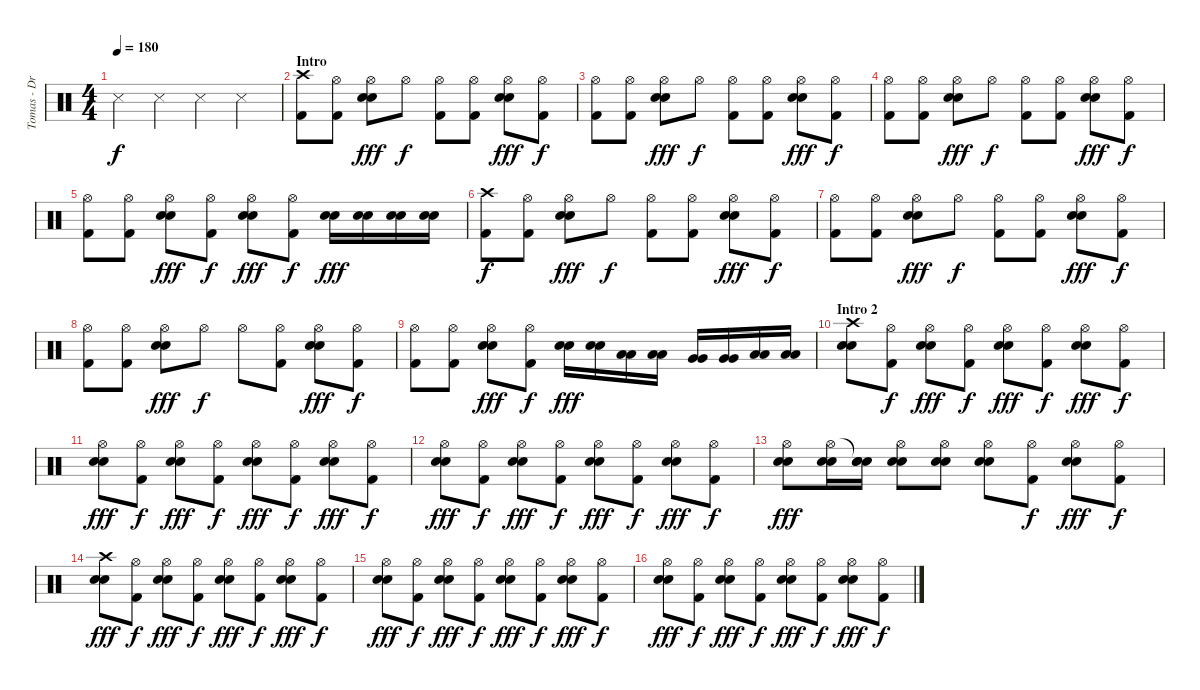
\track ("Tomas - Drums" "Tomas - Dr") {instrument percussion}
\staff {score}
\articulation defaults
\ts (4 4)
\tempo 180
\clef neutral
\ks c "Metronome (hit)".4{dy f} "Metronome (hit)".4 "Metronome (hit)".4 "Metronome (hit)".4
|
\section ("" "Intro")
("Crash high (hit)" "Kick (hit) 2").8 ("Hi-Hat (open)" "Kick (hit) 2").8 ("Hi-Hat (open)" "Electric Snare (hit)" "Electric Snare (hit)").8{dy fff} "Hi-Hat (open)".8{dy f} ("Hi-Hat (open)" "Kick (hit) 2").8 ("Hi-Hat (open)" "Kick (hit) 2").8 ("Hi-Hat (open)" "Electric Snare (hit)" "Electric Snare (hit)").8{dy fff} ("Hi-Hat (open)" "Kick (hit) 2").8{dy f} |
("Hi-Hat (open)" "Kick (hit) 2").8 ("Hi-Hat (open)" "Kick (hit) 2").8 ("Hi-Hat (open)" "Electric Snare (hit)" "Electric Snare (hit)").8{dy fff} "Hi-Hat (open)".8{dy f} ("Hi-Hat (open)" "Kick (hit) 2").8 ("Hi-Hat (open)" "Kick (hit) 2").8 ("Hi-Hat (open)" "Electric Snare (hit)" "Electric Snare (hit)").8{dy fff} ("Hi-Hat (open)" "Kick (hit) 2").8{dy f} |
("Hi-Hat (open)" "Kick (hit) 2").8 ("Hi-Hat (open)" "Kick (hit) 2").8 ("Hi-Hat (open)" "Electric Snare (hit)" "Electric Snare (hit)").8{dy fff} "Hi-Hat (open)".8{dy f} ("Hi-Hat (open)" "Kick (hit) 2").8 ("Hi-Hat (open)" "Kick (hit) 2").8 ("Hi-Hat (open)" "Electric Snare (hit)" "Electric Snare (hit)").8{dy fff} ("Hi-Hat (open)" "Kick (hit) 2").8{dy f} |
("Hi-Hat (open)" "Kick (hit) 2").8 ("Hi-Hat (open)" "Kick (hit) 2").8 ("Hi-Hat (open)" "Electric Snare (hit)" "Electric Snare (hit)").8{dy fff} ("Hi-Hat (open)" "Kick (hit) 2").8{dy f} ("Hi-Hat (open)" "Electric Snare (hit)" "Electric Snare (hit)").8{dy fff} ("Hi-Hat (open)" "Kick (hit) 2").8{dy f} ("Electric Snare (hit)" "Electric Snare (hit)").16{dy fff} ("Electric Snare (hit)" "Electric Snare (hit)").16 ("Electric Snare (hit)" "Electric Snare (hit)").16 ("Electric Snare (hit)" "Electric Snare (hit)").16 |
("Crash high (hit)" "Kick (hit) 2").8{dy f} ("Hi-Hat (open)" "Kick (hit) 2").8 ("Hi-Hat (open)" "Electric Snare (hit)" "Electric Snare (hit)").8{dy fff} "Hi-Hat (open)".8{dy f} ("Hi-Hat (open)" "Kick (hit) 2").8 ("Hi-Hat (open)" "Kick (hit) 2").8 ("Hi-Hat (open)" "Electric Snare (hit)" "Electric Snare (hit)").8{dy fff} ("Hi-Hat (open)" "Kick (hit) 2").8{dy f} |
("Hi-Hat (open)" "Kick (hit) 2").8 ("Hi-Hat (open)" "Kick (hit) 2").8 ("Hi-Hat (open)" "Electric Snare (hit)" "Electric Snare (hit)").8{dy fff} "Hi-Hat (open)".8{dy f} ("Hi-Hat (open)" "Kick (hit) 2").8 ("Hi-Hat (open)" "Kick (hit) 2").8 ("Hi-Hat (open)" "Electric Snare (hit)" "Electric Snare (hit)").8{dy fff} ("Hi-Hat (open)" "Kick (hit) 2").8{dy f} |
("Hi-Hat (open)" "Kick (hit) 2").8 ("Hi-Hat (open)" "Kick (hit) 2").8 ("Hi-Hat (open)" "Electric Snare (hit)" "Electric Snare (hit)").8{dy fff} "Hi-Hat (open)".8{dy f} "Hi-Hat (open)".8 ("Hi-Hat (open)" "Kick (hit) 2").8 ("Hi-Hat (open)" "Electric Snare (hit)" "Electric Snare (hit)").8{dy fff} ("Hi-Hat (open)" "Kick (hit) 2").8{dy f} |
("Hi-Hat (open)" "Kick (hit) 2").8 ("Hi-Hat (open)" "Kick (hit) 2").8 ("Hi-Hat (open)" "Electric Snare (hit)" "Electric Snare (hit)").8{dy fff} ("Hi-Hat (open)" "Kick (hit) 2").8{dy f} ("Electric Snare (hit)" "Electric Snare (hit)").16{dy fff} ("Electric Snare (hit)" "Electric Snare (hit)").16 ("Low Tom (hit)" "Low Tom (hit)").16 ("Low Tom (hit)" "Low Tom (hit)").16 ("Very Low Tom (hit)" "Very Low Tom (hit)").16 ("Very Low Tom (hit)" "Very Low Tom (hit)").16 ("Low Floor Tom (hit)" "Low Floor Tom (hit)").16 ("Low Floor Tom (hit)" "Low Floor Tom (hit)").16 |
\section ("" "Intro 2")
("Crash high (hit)" "Electric Snare (hit)" "Electric Snare (hit)").8 ("Hi-Hat (open)" "Kick (hit) 2").8{dy f} ("Hi-Hat (open)" "Electric Snare (hit)" "Electric Snare (hit)").8{dy fff} ("Hi-Hat (open)" "Kick (hit) 2").8{dy f} ("Hi-Hat (open)" "Electric Snare (hit)" "Electric Snare (hit)").8{dy fff} ("Hi-Hat (open)" "Kick (hit) 2").8{dy f} ("Hi-Hat (open)" "Electric Snare (hit)" "Electric Snare (hit)").8{dy fff} ("Hi-Hat (open)" "Kick (hit) 2").8{dy f} |
("Hi-Hat (open)" "Electric Snare (hit)" "Electric Snare (hit)").8{dy fff} ("Hi-Hat (open)" "Kick (hit) 2").8{dy f} ("Hi-Hat (open)" "Electric Snare (hit)" "Electric Snare (hit)").8{dy fff} ("Hi-Hat (open)" "Kick (hit) 2").8{dy f} ("Hi-Hat (open)" "Electric Snare (hit)" "Electric Snare (hit)").8{dy fff} ("Hi-Hat (open)" "Kick (hit) 2").8{dy f} ("Hi-Hat (open)" "Electric Snare (hit)" "Electric Snare (hit)").8{dy fff} ("Hi-Hat (open)" "Kick (hit) 2").8{dy f} |
("Hi-Hat (open)" "Electric Snare (hit)" "Electric Snare (hit)").8{dy fff} ("Hi-Hat (open)" "Kick (hit) 2").8{dy f} ("Hi-Hat (open)" "Electric Snare (hit)" "Electric Snare (hit)").8{dy fff} ("Hi-Hat (open)" "Kick (hit) 2").8{dy f} ("Hi-Hat (open)" "Electric Snare (hit)" "Electric Snare (hit)").8{dy fff} ("Hi-Hat (open)" "Kick (hit) 2").8{dy f} ("Hi-Hat (open)" "Electric Snare (hit)" "Electric Snare (hit)").8{dy fff} ("Hi-Hat (open)" "Kick (hit) 2").8{dy f} |
("Hi-Hat (open)" "Electric Snare (hit)" "Electric Snare (hit)").8{dy fff} ("Hi-Hat (open)" "Electric Snare (hit)" "Electric Snare (hit)").16 ("Snare (hit)"{t} "Electric Snare (hit)" "Electric Snare (hit)").16 ("Hi-Hat (open)" "Electric Snare (hit)" "Electric Snare (hit)").8 ("Hi-Hat (open)" "Electric Snare (hit)" "Electric Snare (hit)").8 ("Hi-Hat (open)" "Electric Snare (hit)" "Electric Snare (hit)").8 ("Hi-Hat (open)" "Kick (hit) 2").8{dy f} ("Hi-Hat (open)" "Electric Snare (hit)" "Electric Snare (hit)").8{dy fff} ("Hi-Hat (open)" "Kick (hit) 2").8{dy f} |
("Crash high (hit)" "Electric Snare (hit)" "Electric Snare (hit)").8{dy fff} ("Hi-Hat (open)" "Kick (hit) 2").8{dy f} ("Hi-Hat (open)" "Electric Snare (hit)" "Electric Snare (hit)").8{dy fff} ("Hi-Hat (open)" "Kick (hit) 2").8{dy f} ("Hi-Hat (open)" "Electric Snare (hit)" "Electric Snare (hit)").8{dy fff} ("Hi-Hat (open)" "Kick (hit) 2").8{dy f} ("Hi-Hat (open)" "Electric Snare (hit)" "Electric Snare (hit)").8{dy fff} ("Hi-Hat (open)" "Kick (hit) 2").8{dy f} |
("Hi-Hat (open)" "Electric Snare (hit)" "Electric Snare (hit)").8{dy fff} ("Hi-Hat (open)" "Kick (hit) 2").8{dy f} ("Hi-Hat (open)" "Electric Snare (hit)" "Electric Snare (hit)").8{dy fff} ("Hi-Hat (open)" "Kick (hit) 2").8{dy f} ("Hi-Hat (open)" "Electric Snare (hit)" "Electric Snare (hit)").8{dy fff} ("Hi-Hat (open)" "Kick (hit) 2").8{dy f} ("Hi-Hat (open)" "Electric Snare (hit)" "Electric Snare (hit)").8{dy fff} ("Hi-Hat (open)" "Kick (hit) 2").8{dy f} |
("Hi-Hat (open)" "Electric Snare (hit)" "Electric Snare (hit)").8{dy fff} ("Hi-Hat (open)" "Kick (hit) 2").8{dy f} ("Hi-Hat (open)" "Electric Snare (hit)" "Electric Snare (hit)").8{dy fff} ("Hi-Hat (open)" "Kick (hit) 2").8{dy f} ("Hi-Hat (open)" "Electric Snare (hit)" "Electric Snare (hit)").8{dy fff} ("Hi-Hat (open)" "Kick (hit) 2").8{dy f} ("Hi-Hat (open)" "Electric Snare (hit)" "Electric Snare (hit)").8{dy fff} ("Hi-Hat (open)" "Kick (hit) 2").8{dy f}
